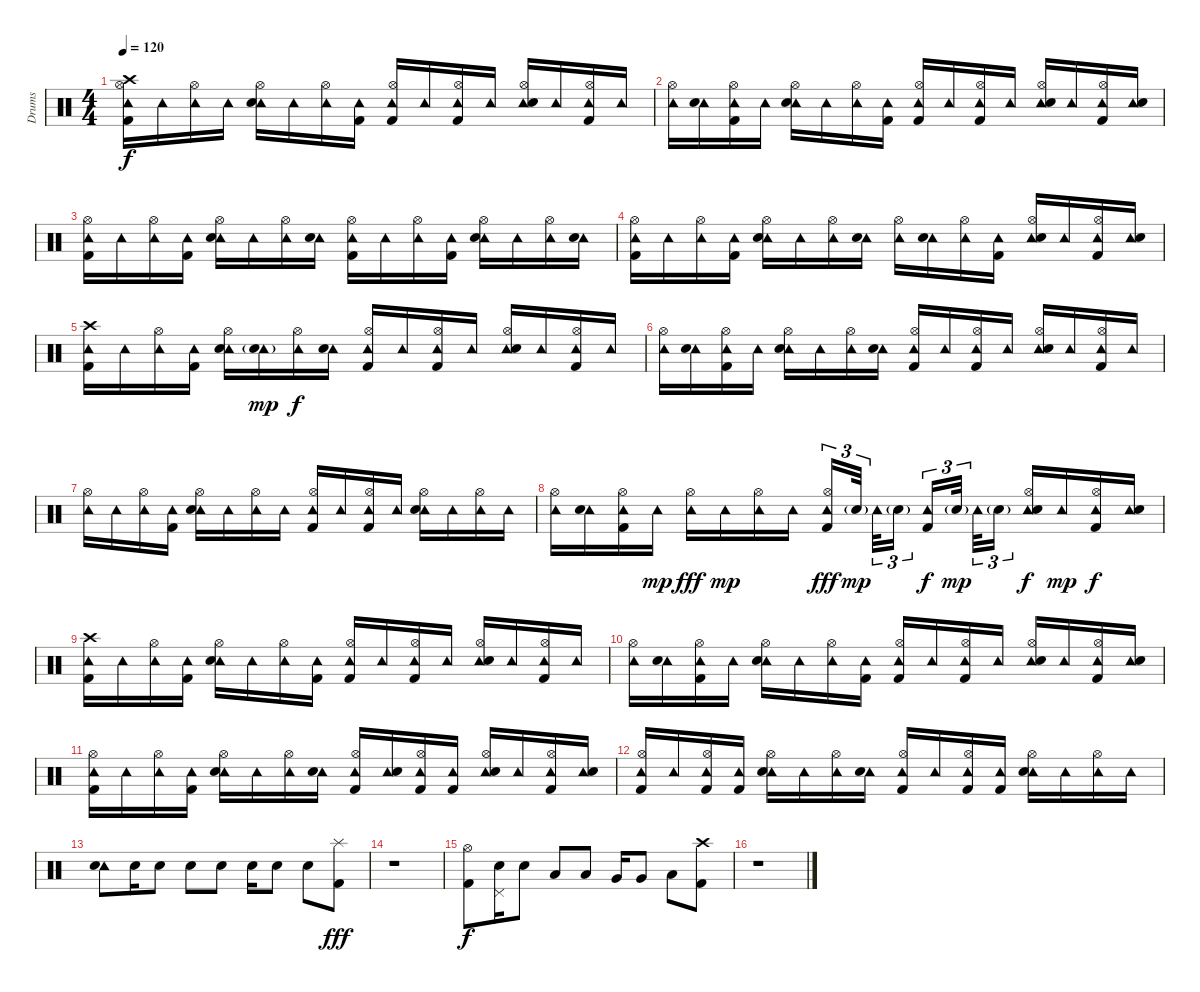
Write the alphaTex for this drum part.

\track ("Drums" "Drums") {instrument percussion}
\staff {score}
\articulation defaults
\ts (4 4)
\tempo 120
\clef neutral
\ks c
("Tambourine (hit)" "Crash high (hit)" "Hi-Hat (open)" "Kick (hit) 2").16{dy f} "Tambourine (hit)".16 ("Tambourine (hit)" "Hi-Hat (open)").16 "Tambourine (hit)".16 ("Tambourine (hit)" "Hi-Hat (open)" "Electric Snare (hit)").16 "Tambourine (hit)".16 ("Tambourine (hit)" "Hi-Hat (open)").16 ("Tambourine (hit)" "Kick (hit) 2").16 ("Tambourine (hit)" "Hi-Hat (open)" "Kick (hit) 2").16 "Tambourine (hit)".16 ("Tambourine (hit)" "Hi-Hat (open)" "Kick (hit) 2").16 "Tambourine (hit)".16 ("Tambourine (hit)" "Hi-Hat (open)" "Electric Snare (hit)").16 "Tambourine (hit)".16 ("Tambourine (hit)" "Hi-Hat (open)" "Kick (hit) 2").16 "Tambourine (hit)".16 |
("Tambourine (hit)" "Hi-Hat (open)").16 ("Tambourine (hit)" "Electric Snare (hit)").16 ("Tambourine (hit)" "Hi-Hat (open)" "Kick (hit) 2").16 "Tambourine (hit)".16 ("Tambourine (hit)" "Hi-Hat (open)" "Electric Snare (hit)").16 "Tambourine (hit)".16 ("Tambourine (hit)" "Hi-Hat (open)").16 ("Tambourine (hit)" "Kick (hit) 2").16 ("Tambourine (hit)" "Hi-Hat (open)" "Kick (hit) 2").16 "Tambourine (hit)".16 ("Tambourine (hit)" "Hi-Hat (open)" "Kick (hit) 2").16 "Tambourine (hit)".16 ("Tambourine (hit)" "Hi-Hat (open)" "Electric Snare (hit)").16 "Tambourine (hit)".16 ("Tambourine (hit)" "Hi-Hat (open)" "Kick (hit) 2").16 ("Tambourine (hit)" "Electric Snare (hit)").16 |
("Tambourine (hit)" "Hi-Hat (open)" "Kick (hit) 2").16 "Tambourine (hit)".16 ("Tambourine (hit)" "Hi-Hat (open)").16 ("Tambourine (hit)" "Kick (hit) 2").16 ("Tambourine (hit)" "Hi-Hat (open)" "Electric Snare (hit)").16 "Tambourine (hit)".16 ("Tambourine (hit)" "Hi-Hat (open)").16 ("Tambourine (hit)" "Electric Snare (hit)").16 ("Tambourine (hit)" "Hi-Hat (open)" "Kick (hit) 2").16 "Tambourine (hit)".16 ("Tambourine (hit)" "Hi-Hat (open)").16 ("Tambourine (hit)" "Kick (hit) 2").16 ("Tambourine (hit)" "Hi-Hat (open)" "Electric Snare (hit)").16 "Tambourine (hit)".16 ("Tambourine (hit)" "Hi-Hat (open)").16 ("Tambourine (hit)" "Electric Snare (hit)").16 |
("Tambourine (hit)" "Hi-Hat (open)" "Kick (hit) 2").16 "Tambourine (hit)".16 ("Tambourine (hit)" "Hi-Hat (open)").16 ("Tambourine (hit)" "Kick (hit) 2").16 ("Tambourine (hit)" "Hi-Hat (open)" "Electric Snare (hit)").16 "Tambourine (hit)".16 ("Tambourine (hit)" "Hi-Hat (open)").16 ("Tambourine (hit)" "Electric Snare (hit)").16 ("Tambourine (hit)" "Hi-Hat (open)").16 ("Tambourine (hit)" "Electric Snare (hit)").16 ("Tambourine (hit)" "Hi-Hat (open)").16 ("Tambourine (hit)" "Kick (hit) 2").16 ("Tambourine (hit)" "Hi-Hat (open)" "Electric Snare (hit)").16 "Tambourine (hit)".16 ("Tambourine (hit)" "Hi-Hat (open)" "Kick (hit) 2").16 ("Tambourine (hit)" "Electric Snare (hit)").16 |
("Tambourine (hit)" "Crash high (hit)" "Kick (hit) 2").16 "Tambourine (hit)".16 ("Tambourine (hit)" "Hi-Hat (open)").16 ("Tambourine (hit)" "Kick (hit) 2").16 ("Tambourine (hit)" "Hi-Hat (open)" "Electric Snare (hit)").16 ("Tambourine (hit)" "Electric Snare (hit)"{g}).16{dy mp} ("Tambourine (hit)" "Hi-Hat (open)").16{dy f} ("Tambourine (hit)" "Electric Snare (hit)").16 ("Tambourine (hit)" "Hi-Hat (open)" "Kick (hit) 2").16 "Tambourine (hit)".16 ("Tambourine (hit)" "Hi-Hat (open)" "Kick (hit) 2").16 "Tambourine (hit)".16 ("Tambourine (hit)" "Hi-Hat (open)" "Electric Snare (hit)").16 "Tambourine (hit)".16 ("Tambourine (hit)" "Hi-Hat (open)" "Kick (hit) 2").16 "Tambourine (hit)".16 |
("Tambourine (hit)" "Hi-Hat (open)").16 ("Tambourine (hit)" "Electric Snare (hit)").16 ("Tambourine (hit)" "Hi-Hat (open)" "Kick (hit) 2").16 "Tambourine (hit)".16 ("Tambourine (hit)" "Hi-Hat (open)" "Electric Snare (hit)").16 "Tambourine (hit)".16 ("Tambourine (hit)" "Hi-Hat (open)").16 ("Tambourine (hit)" "Electric Snare (hit)").16 ("Tambourine (hit)" "Hi-Hat (open)" "Kick (hit) 2").16 "Tambourine (hit)".16 ("Tambourine (hit)" "Hi-Hat (open)" "Kick (hit) 2").16 "Tambourine (hit)".16 ("Tambourine (hit)" "Hi-Hat (open)" "Electric Snare (hit)").16 "Tambourine (hit)".16 ("Tambourine (hit)" "Hi-Hat (open)" "Kick (hit) 2").16 "Tambourine (hit)".16 |
("Tambourine (hit)" "Hi-Hat (open)").16 "Tambourine (hit)".16 ("Tambourine (hit)" "Hi-Hat (open)").16 ("Tambourine (hit)" "Kick (hit) 2").16 ("Tambourine (hit)" "Hi-Hat (open)" "Electric Snare (hit)").16 "Tambourine (hit)".16 ("Tambourine (hit)" "Hi-Hat (open)").16 "Tambourine (hit)".16 ("Tambourine (hit)" "Hi-Hat (open)" "Kick (hit) 2").16 "Tambourine (hit)".16 ("Tambourine (hit)" "Hi-Hat (open)" "Kick (hit) 2").16 "Tambourine (hit)".16 ("Tambourine (hit)" "Hi-Hat (open)" "Electric Snare (hit)").16 "Tambourine (hit)".16 ("Tambourine (hit)" "Hi-Hat (open)").16 "Tambourine (hit)".16 |
("Tambourine (hit)" "Hi-Hat (open)").16 ("Tambourine (hit)" "Electric Snare (hit)").16 ("Tambourine (hit)" "Hi-Hat (open)" "Kick (hit) 2").16 "Tambourine (hit)".16{dy mp} ("Tambourine (hit)" "Hi-Hat (open)").16{dy fff} "Tambourine (hit)".16{dy mp} ("Tambourine (hit)" "Hi-Hat (open)").16 "Tambourine (hit)".16 ("Tambourine (hit)" "Hi-Hat (open)" "Kick (hit) 2").16{tu (3 2) dy fff} "Electric Snare (hit)"{g}.32{tu (3 2) dy mp beam splitsecondary} "Tambourine (hit)".32{tu (3 2)} "Electric Snare (hit)"{g}.16{tu (3 2) beam splitsecondary} ("Tambourine (hit)" "Kick (hit) 2").16{tu (3 2) dy f} "Electric Snare (hit)"{g}.32{tu (3 2) dy mp beam splitsecondary} "Tambourine (hit)".32{tu (3 2)} "Electric Snare (hit)"{g}.16{tu (3 2)} ("Tambourine (hit)" "Hi-Hat (open)" "Electric Snare (hit)").16{dy f} "Tambourine (hit)".16{dy mp} ("Tambourine (hit)" "Hi-Hat (open)" "Kick (hit) 2").16{dy f} ("Tambourine (hit)" "Electric Snare (hit)").16 |
("Tambourine (hit)" "Crash high (hit)" "Kick (hit) 2").16 "Tambourine (hit)".16 ("Tambourine (hit)" "Hi-Hat (open)").16 ("Tambourine (hit)" "Kick (hit) 2").16 ("Tambourine (hit)" "Hi-Hat (open)" "Electric Snare (hit)").16 "Tambourine (hit)".16 ("Tambourine (hit)" "Hi-Hat (open)").16 ("Tambourine (hit)" "Kick (hit) 2").16 ("Tambourine (hit)" "Hi-Hat (open)" "Kick (hit) 2").16 "Tambourine (hit)".16 ("Tambourine (hit)" "Hi-Hat (open)" "Kick (hit) 2").16 "Tambourine (hit)".16 ("Tambourine (hit)" "Hi-Hat (open)" "Electric Snare (hit)").16 "Tambourine (hit)".16 ("Tambourine (hit)" "Hi-Hat (open)" "Kick (hit) 2").16 "Tambourine (hit)".16 |
("Tambourine (hit)" "Hi-Hat (open)").16 ("Tambourine (hit)" "Electric Snare (hit)").16 ("Tambourine (hit)" "Hi-Hat (open)" "Kick (hit) 2").16 "Tambourine (hit)".16 ("Tambourine (hit)" "Hi-Hat (open)" "Electric Snare (hit)").16 "Tambourine (hit)".16 ("Tambourine (hit)" "Hi-Hat (open)").16 ("Tambourine (hit)" "Kick (hit) 2").16 ("Tambourine (hit)" "Hi-Hat (open)" "Kick (hit) 2").16 "Tambourine (hit)".16 ("Tambourine (hit)" "Hi-Hat (open)" "Kick (hit) 2").16 "Tambourine (hit)".16 ("Tambourine (hit)" "Hi-Hat (open)" "Electric Snare (hit)").16 "Tambourine (hit)".16 ("Tambourine (hit)" "Hi-Hat (open)" "Kick (hit) 2").16 ("Tambourine (hit)" "Electric Snare (hit)").16 |
("Tambourine (hit)" "Hi-Hat (open)" "Kick (hit) 2").16 "Tambourine (hit)".16 ("Tambourine (hit)" "Hi-Hat (open)").16 ("Tambourine (hit)" "Kick (hit) 2").16 ("Tambourine (hit)" "Hi-Hat (open)" "Electric Snare (hit)").16 "Tambourine (hit)".16 ("Tambourine (hit)" "Hi-Hat (open)").16 ("Tambourine (hit)" "Electric Snare (hit)").16 ("Tambourine (hit)" "Hi-Hat (open)" "Kick (hit) 2").16 ("Tambourine (hit)" "Electric Snare (hit)").16 ("Tambourine (hit)" "Hi-Hat (open)" "Kick (hit) 2").16 ("Tambourine (hit)" "Kick (hit) 2").16 ("Tambourine (hit)" "Hi-Hat (open)" "Electric Snare (hit)").16 "Tambourine (hit)".16 ("Tambourine (hit)" "Hi-Hat (open)" "Kick (hit) 2").16 ("Tambourine (hit)" "Electric Snare (hit)").16 |
("Tambourine (hit)" "Hi-Hat (open)" "Kick (hit) 2").16 "Tambourine (hit)".16 ("Tambourine (hit)" "Hi-Hat (open)" "Kick (hit) 2").16 ("Tambourine (hit)" "Kick (hit) 2").16 ("Tambourine (hit)" "Hi-Hat (open)" "Electric Snare (hit)").16 "Tambourine (hit)".16 ("Tambourine (hit)" "Hi-Hat (open)").16 ("Tambourine (hit)" "Electric Snare (hit)").16 ("Tambourine (hit)" "Hi-Hat (open)" "Kick (hit) 2").16 "Tambourine (hit)".16 ("Tambourine (hit)" "Hi-Hat (open)" "Kick (hit) 2").16 ("Tambourine (hit)" "Kick (hit) 2").16 ("Tambourine (hit)" "Hi-Hat (open)" "Electric Snare (hit)").16 "Tambourine (hit)".16 ("Tambourine (hit)" "Hi-Hat (open)").16 "Tambourine (hit)".16 |
("Tambourine (hit)" "Electric Snare (hit)").8 "Electric Snare (hit)".16 "Electric Snare (hit)".8 "Electric Snare (hit)".8 "Electric Snare (hit)".8 "Electric Snare (hit)".16 "Electric Snare (hit)".8 "Electric Snare (hit)".8 ("Splash (hit)" "Kick (hit) 2").8{dy fff} |
r.1 |
("Hi-Hat (open)" "Kick (hit) 2").8{dy f} ("Pedal Hi-Hat (hit)" "Electric Snare (hit)").16 "Electric Snare (hit)".8 "Low Tom (hit)".8 "Low Tom (hit)".8 "Very Low Tom (hit)".16 "Very Low Tom (hit)".8 "Low Floor Tom (hit)".8 ("Crash high (hit)" "Kick (hit) 2").8 |
r.1
